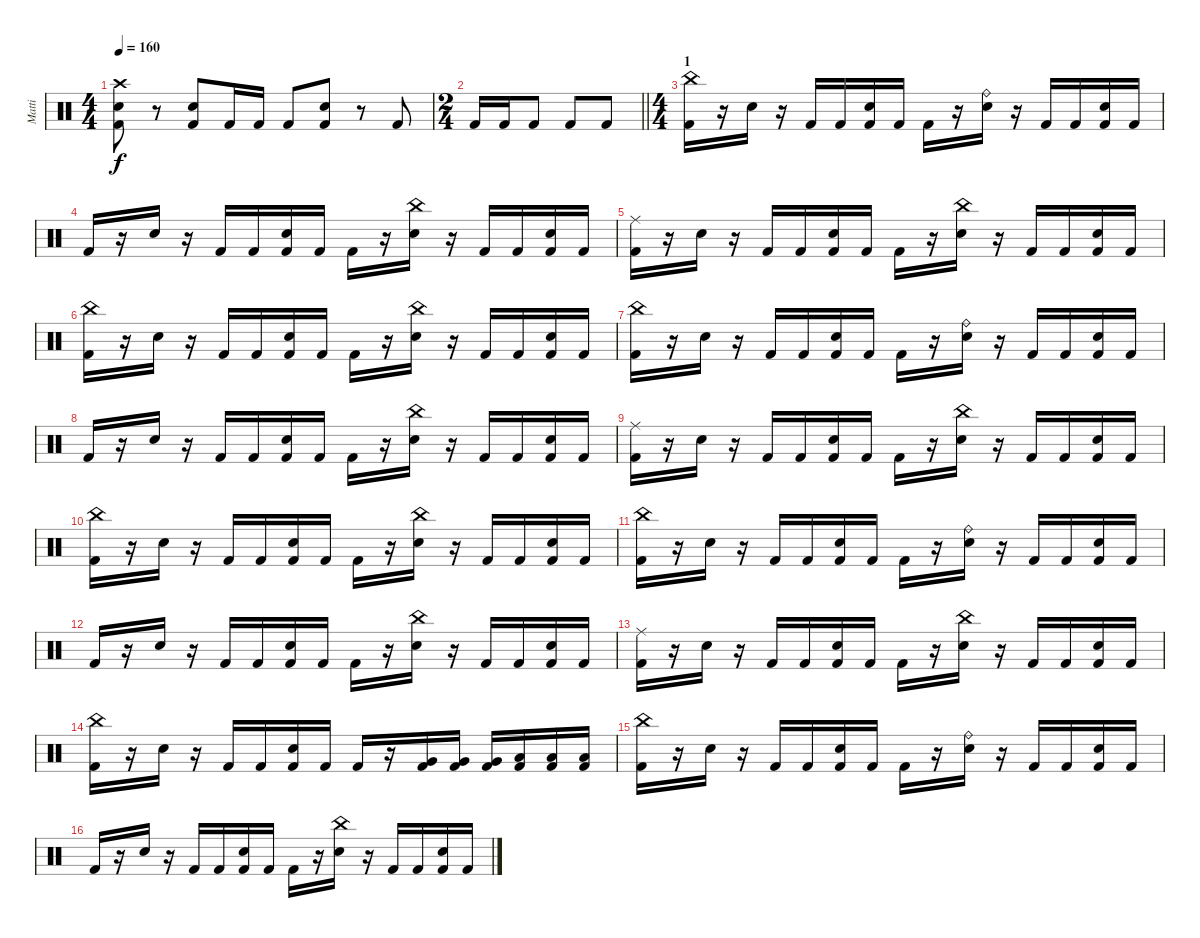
\track ("Matti" "Matti") {instrument percussion}
\staff {score}
\articulation defaults
\ts (4 4)
\tempo 160
\clef neutral
\ks c
("Crash high (hit)" "Electric Snare (hit)" "Kick (hit) 2").8{dy f} r.8 ("Electric Snare (hit)" "Kick (hit) 2").8 "Kick (hit) 2".16 "Kick (hit) 2".16 "Kick (hit) 2".8 ("Electric Snare (hit)" "Kick (hit) 2").8 r.8 "Kick (hit) 2".8 |
\ts (2 4)
\barLineRight lightlight "Kick (hit) 2".16 "Kick (hit) 2".16 "Kick (hit) 2".8 "Kick (hit) 2".8 "Kick (hit) 2".8
|
\ts (4 4)
\section ("" "1")
("China (hit)" "Kick (hit) 2").16 r.16 "Electric Snare (hit)".16 r.16 "Kick (hit) 2".16 "Kick (hit) 2".16 ("Electric Snare (hit)" "Kick (hit) 2").16 "Kick (hit) 2".16 "Kick (hit) 2".16 r.16 ("Ride (bell)" "Electric Snare (hit)").16 r.16 "Kick (hit) 2".16 "Kick (hit) 2".16 ("Electric Snare (hit)" "Kick (hit) 2").16 "Kick (hit) 2".16 |
"Kick (hit) 2".16 r.16 "Electric Snare (hit)".16 r.16 "Kick (hit) 2".16 "Kick (hit) 2".16 ("Electric Snare (hit)" "Kick (hit) 2").16 "Kick (hit) 2".16 "Kick (hit) 2".16 r.16 ("China (hit)" "Electric Snare (hit)").16 r.16 "Kick (hit) 2".16 "Kick (hit) 2".16 ("Electric Snare (hit)" "Kick (hit) 2").16 "Kick (hit) 2".16 |
("Ride (middle)" "Kick (hit) 2").16 r.16 "Electric Snare (hit)".16 r.16 "Kick (hit) 2".16 "Kick (hit) 2".16 ("Electric Snare (hit)" "Kick (hit) 2").16 "Kick (hit) 2".16 "Kick (hit) 2".16 r.16 ("China (hit)" "Electric Snare (hit)").16 r.16 "Kick (hit) 2".16 "Kick (hit) 2".16 ("Electric Snare (hit)" "Kick (hit) 2").16 "Kick (hit) 2".16 |
("China (hit)" "Kick (hit) 2").16 r.16 "Electric Snare (hit)".16 r.16 "Kick (hit) 2".16 "Kick (hit) 2".16 ("Electric Snare (hit)" "Kick (hit) 2").16 "Kick (hit) 2".16 "Kick (hit) 2".16 r.16 ("China (hit)" "Electric Snare (hit)").16 r.16 "Kick (hit) 2".16 "Kick (hit) 2".16 ("Electric Snare (hit)" "Kick (hit) 2").16 "Kick (hit) 2".16 |
("China (hit)" "Kick (hit) 2").16 r.16 "Electric Snare (hit)".16 r.16 "Kick (hit) 2".16 "Kick (hit) 2".16 ("Electric Snare (hit)" "Kick (hit) 2").16 "Kick (hit) 2".16 "Kick (hit) 2".16 r.16 ("Ride (bell)" "Electric Snare (hit)").16 r.16 "Kick (hit) 2".16 "Kick (hit) 2".16 ("Electric Snare (hit)" "Kick (hit) 2").16 "Kick (hit) 2".16 |
"Kick (hit) 2".16 r.16 "Electric Snare (hit)".16 r.16 "Kick (hit) 2".16 "Kick (hit) 2".16 ("Electric Snare (hit)" "Kick (hit) 2").16 "Kick (hit) 2".16 "Kick (hit) 2".16 r.16 ("China (hit)" "Electric Snare (hit)").16 r.16 "Kick (hit) 2".16 "Kick (hit) 2".16 ("Electric Snare (hit)" "Kick (hit) 2").16 "Kick (hit) 2".16 |
("Ride (middle)" "Kick (hit) 2").16 r.16 "Electric Snare (hit)".16 r.16 "Kick (hit) 2".16 "Kick (hit) 2".16 ("Electric Snare (hit)" "Kick (hit) 2").16 "Kick (hit) 2".16 "Kick (hit) 2".16 r.16 ("China (hit)" "Electric Snare (hit)").16 r.16 "Kick (hit) 2".16 "Kick (hit) 2".16 ("Electric Snare (hit)" "Kick (hit) 2").16 "Kick (hit) 2".16 |
("China (hit)" "Kick (hit) 2").16 r.16 "Electric Snare (hit)".16 r.16 "Kick (hit) 2".16 "Kick (hit) 2".16 ("Electric Snare (hit)" "Kick (hit) 2").16 "Kick (hit) 2".16 "Kick (hit) 2".16 r.16 ("China (hit)" "Electric Snare (hit)").16 r.16 "Kick (hit) 2".16 "Kick (hit) 2".16 ("Electric Snare (hit)" "Kick (hit) 2").16 "Kick (hit) 2".16 |
("China (hit)" "Kick (hit) 2").16 r.16 "Electric Snare (hit)".16 r.16 "Kick (hit) 2".16 "Kick (hit) 2".16 ("Electric Snare (hit)" "Kick (hit) 2").16 "Kick (hit) 2".16 "Kick (hit) 2".16 r.16 ("Ride (bell)" "Electric Snare (hit)").16 r.16 "Kick (hit) 2".16 "Kick (hit) 2".16 ("Electric Snare (hit)" "Kick (hit) 2").16 "Kick (hit) 2".16 |
"Kick (hit) 2".16 r.16 "Electric Snare (hit)".16 r.16 "Kick (hit) 2".16 "Kick (hit) 2".16 ("Electric Snare (hit)" "Kick (hit) 2").16 "Kick (hit) 2".16 "Kick (hit) 2".16 r.16 ("China (hit)" "Electric Snare (hit)").16 r.16 "Kick (hit) 2".16 "Kick (hit) 2".16 ("Electric Snare (hit)" "Kick (hit) 2").16 "Kick (hit) 2".16 |
("Ride (middle)" "Kick (hit) 2").16 r.16 "Electric Snare (hit)".16 r.16 "Kick (hit) 2".16 "Kick (hit) 2".16 ("Electric Snare (hit)" "Kick (hit) 2").16 "Kick (hit) 2".16 "Kick (hit) 2".16 r.16 ("China (hit)" "Electric Snare (hit)").16 r.16 "Kick (hit) 2".16 "Kick (hit) 2".16 ("Electric Snare (hit)" "Kick (hit) 2").16 "Kick (hit) 2".16 |
("China (hit)" "Kick (hit) 2").16 r.16 "Electric Snare (hit)".16 r.16 "Kick (hit) 2".16 "Kick (hit) 2".16 ("Electric Snare (hit)" "Kick (hit) 2").16 "Kick (hit) 2".16 "Kick (hit) 2".16 r.16 ("Very Low Tom (hit)" "Kick (hit) 2").16 ("Very Low Tom (hit)" "Kick (hit) 2").16 ("Very Low Tom (hit)" "Kick (hit) 2").16 ("Low Floor Tom (hit)" "Kick (hit) 2").16 ("Low Floor Tom (hit)" "Kick (hit) 2").16 ("Low Floor Tom (hit)" "Kick (hit) 2").16 |
("China (hit)" "Kick (hit) 2").16 r.16 "Electric Snare (hit)".16 r.16 "Kick (hit) 2".16 "Kick (hit) 2".16 ("Electric Snare (hit)" "Kick (hit) 2").16 "Kick (hit) 2".16 "Kick (hit) 2".16 r.16 ("Ride (bell)" "Electric Snare (hit)").16 r.16 "Kick (hit) 2".16 "Kick (hit) 2".16 ("Electric Snare (hit)" "Kick (hit) 2").16 "Kick (hit) 2".16 |
"Kick (hit) 2".16 r.16 "Electric Snare (hit)".16 r.16 "Kick (hit) 2".16 "Kick (hit) 2".16 ("Electric Snare (hit)" "Kick (hit) 2").16 "Kick (hit) 2".16 "Kick (hit) 2".16 r.16 ("China (hit)" "Electric Snare (hit)").16 r.16 "Kick (hit) 2".16 "Kick (hit) 2".16 ("Electric Snare (hit)" "Kick (hit) 2").16 "Kick (hit) 2".16
